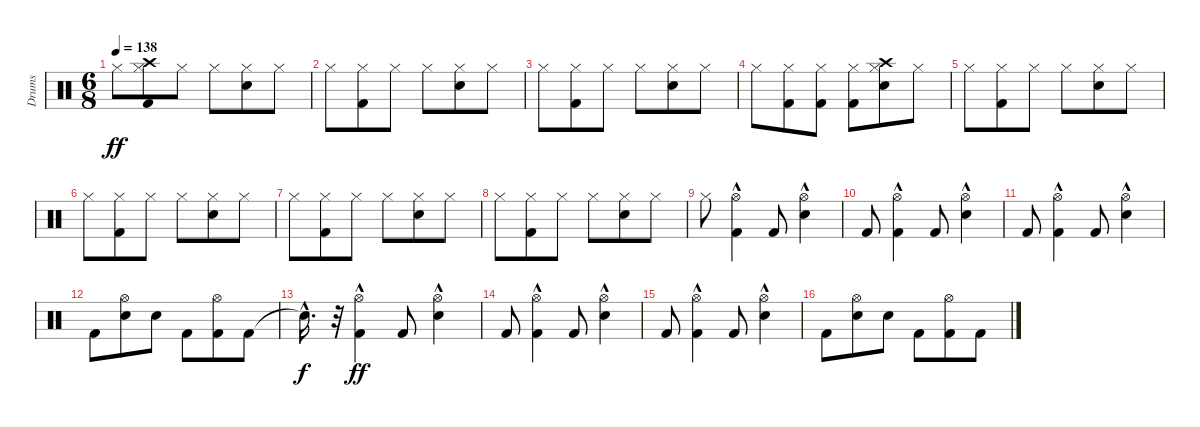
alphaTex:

\track ("Drums" "Drums") {instrument percussion}
\staff {score}
\articulation defaults
\ts (6 8)
\tempo 138
\clef neutral
\ks c "Hi-Hat (closed)".8{dy ff}
("Kick (hit) 2" "Hi-Hat (closed)" "Crash high (hit)").8 "Hi-Hat (closed)".8 "Hi-Hat (closed)".8 ("Snare (hit) 2" "Hi-Hat (closed)").8 "Hi-Hat (closed)".8 |
"Hi-Hat (closed)".8 ("Kick (hit) 2" "Hi-Hat (closed)").8 "Hi-Hat (closed)".8 "Hi-Hat (closed)".8 ("Snare (hit) 2" "Hi-Hat (closed)").8 "Hi-Hat (closed)".8 |
"Hi-Hat (closed)".8 ("Kick (hit) 2" "Hi-Hat (closed)").8 "Hi-Hat (closed)".8 "Hi-Hat (closed)".8 ("Snare (hit) 2" "Hi-Hat (closed)").8 "Hi-Hat (closed)".8 |
"Hi-Hat (closed)".8 ("Kick (hit) 2" "Hi-Hat (closed)").8 ("Kick (hit) 2" "Hi-Hat (closed)").8 ("Kick (hit) 2" "Hi-Hat (closed)").8 ("Snare (hit) 2" "Hi-Hat (closed)" "Crash high (hit)").8 "Hi-Hat (closed)".8 |
"Hi-Hat (closed)".8 ("Kick (hit) 2" "Hi-Hat (closed)").8 "Hi-Hat (closed)".8 "Hi-Hat (closed)".8 ("Snare (hit) 2" "Hi-Hat (closed)").8 "Hi-Hat (closed)".8 |
"Hi-Hat (closed)".8 ("Kick (hit) 2" "Hi-Hat (closed)").8 "Hi-Hat (closed)".8 "Hi-Hat (closed)".8 ("Snare (hit) 2" "Hi-Hat (closed)").8 "Hi-Hat (closed)".8 |
"Hi-Hat (closed)".8 ("Kick (hit) 2" "Hi-Hat (closed)").8 "Hi-Hat (closed)".8 "Hi-Hat (closed)".8 ("Snare (hit) 2" "Hi-Hat (closed)").8 "Hi-Hat (closed)".8 |
"Hi-Hat (closed)".8 ("Kick (hit) 2" "Hi-Hat (closed)").8 "Hi-Hat (closed)".8 "Hi-Hat (closed)".8 ("Snare (hit) 2" "Hi-Hat (closed)").8 "Hi-Hat (closed)".8 |
"Hi-Hat (closed)".8 ("Kick (hit) 2"{hac} "Hi-Hat (open)").4 "Kick (hit) 2".8 ("Snare (hit) 2"{hac} "Hi-Hat (open)").4 |
"Kick (hit) 2".8 ("Kick (hit) 2"{hac} "Hi-Hat (open)").4 "Kick (hit) 2".8 ("Snare (hit) 2"{hac} "Hi-Hat (open)").4 |
"Kick (hit) 2".8 ("Kick (hit) 2"{hac} "Hi-Hat (open)").4 "Kick (hit) 2".8 ("Snare (hit) 2"{hac} "Hi-Hat (open)").4 |
"Kick (hit) 2".8 ("Snare (hit) 2" "Hi-Hat (open)").8 "Snare (hit) 2".8 "Kick (hit) 2".8 ("Kick (hit) 2" "Hi-Hat (open)").8 "Kick (hit) 2".8 |
"Snare (hit)"{hac t}.16{d dy f} r.32 ("Kick (hit) 2"{hac} "Hi-Hat (open)").4{dy ff} "Kick (hit) 2".8 ("Snare (hit) 2"{hac} "Hi-Hat (open)").4 |
"Kick (hit) 2".8 ("Kick (hit) 2"{hac} "Hi-Hat (open)").4 "Kick (hit) 2".8 ("Snare (hit) 2"{hac} "Hi-Hat (open)").4 |
"Kick (hit) 2".8 ("Kick (hit) 2"{hac} "Hi-Hat (open)").4 "Kick (hit) 2".8 ("Snare (hit) 2"{hac} "Hi-Hat (open)").4 |
"Kick (hit) 2".8 ("Snare (hit) 2" "Hi-Hat (open)").8 "Snare (hit) 2".8 "Kick (hit) 2".8 ("Kick (hit) 2" "Hi-Hat (open)").8 "Kick (hit) 2".8
